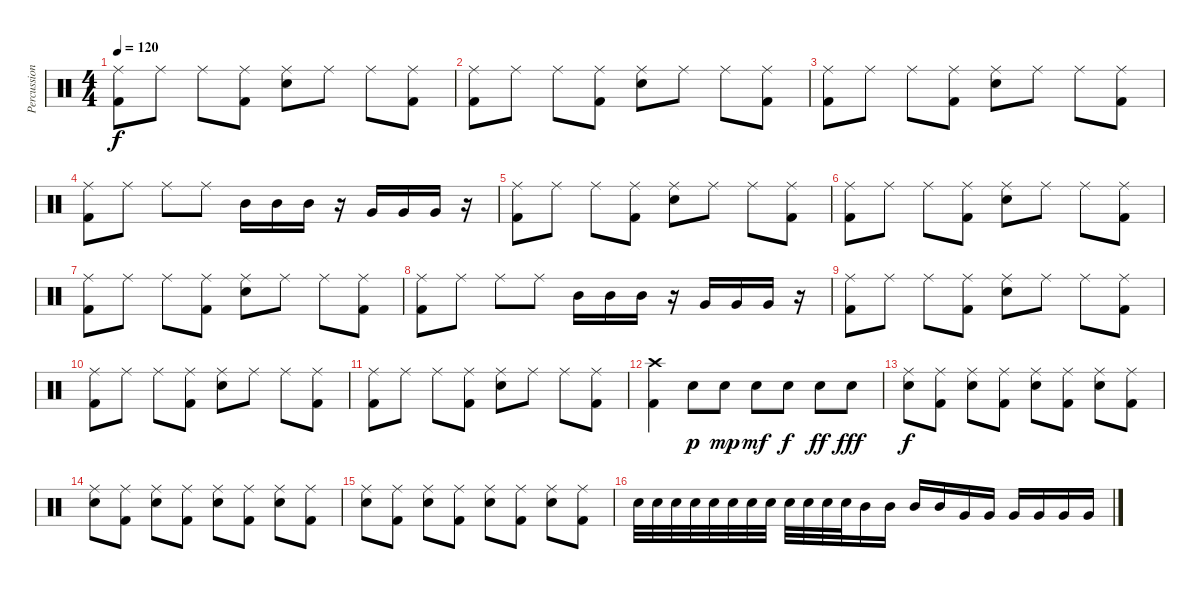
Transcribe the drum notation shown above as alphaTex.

\track ("Percussions" "Percussion") {instrument percussion}
\staff {score}
\articulation defaults
\ts (4 4)
\tempo 120
\clef neutral
\ks c
("Ride (middle)" "Kick (hit) 2").8{dy f} "Ride (middle)".8 "Ride (middle)".8 ("Ride (middle)" "Kick (hit) 2").8 ("Ride (middle)" "Snare (hit) 2").8 "Ride (middle)".8 "Ride (middle)".8 ("Ride (middle)" "Kick (hit) 2").8 |
("Ride (middle)" "Kick (hit) 2").8 "Ride (middle)".8 "Ride (middle)".8 ("Ride (middle)" "Kick (hit) 2").8 ("Ride (middle)" "Snare (hit) 2").8 "Ride (middle)".8 "Ride (middle)".8 ("Ride (middle)" "Kick (hit) 2").8 |
("Ride (middle)" "Kick (hit) 2").8 "Ride (middle)".8 "Ride (middle)".8 ("Ride (middle)" "Kick (hit) 2").8 ("Ride (middle)" "Snare (hit) 2").8 "Ride (middle)".8 "Ride (middle)".8 ("Ride (middle)" "Kick (hit) 2").8 |
("Ride (middle)" "Kick (hit) 2").8 "Ride (middle)".8 "Ride (middle)".8 "Ride (middle)".8 "Mid Tom (hit)".16 "Mid Tom (hit)".16 "Mid Tom (hit)".16 r.16 "Very Low Tom (hit)".16 "Very Low Tom (hit)".16 "Very Low Tom (hit)".16 r.16 |
("Ride (middle)" "Kick (hit) 2").8 "Ride (middle)".8 "Ride (middle)".8 ("Ride (middle)" "Kick (hit) 2").8 ("Ride (middle)" "Snare (hit) 2").8 "Ride (middle)".8 "Ride (middle)".8 ("Ride (middle)" "Kick (hit) 2").8 |
("Ride (middle)" "Kick (hit) 2").8 "Ride (middle)".8 "Ride (middle)".8 ("Ride (middle)" "Kick (hit) 2").8 ("Ride (middle)" "Snare (hit) 2").8 "Ride (middle)".8 "Ride (middle)".8 ("Ride (middle)" "Kick (hit) 2").8 |
("Ride (middle)" "Kick (hit) 2").8 "Ride (middle)".8 "Ride (middle)".8 ("Ride (middle)" "Kick (hit) 2").8 ("Ride (middle)" "Snare (hit) 2").8 "Ride (middle)".8 "Ride (middle)".8 ("Ride (middle)" "Kick (hit) 2").8 |
("Ride (middle)" "Kick (hit) 2").8 "Ride (middle)".8 "Ride (middle)".8 "Ride (middle)".8 "Mid Tom (hit)".16 "Mid Tom (hit)".16 "Mid Tom (hit)".16 r.16 "Very Low Tom (hit)".16 "Very Low Tom (hit)".16 "Very Low Tom (hit)".16 r.16 |
("Ride (middle)" "Kick (hit) 2").8 "Ride (middle)".8 "Ride (middle)".8 ("Ride (middle)" "Kick (hit) 2").8 ("Ride (middle)" "Snare (hit) 2").8 "Ride (middle)".8 "Ride (middle)".8 ("Ride (middle)" "Kick (hit) 2").8 |
("Ride (middle)" "Kick (hit) 2").8 "Ride (middle)".8 "Ride (middle)".8 ("Ride (middle)" "Kick (hit) 2").8 ("Ride (middle)" "Snare (hit) 2").8 "Ride (middle)".8 "Ride (middle)".8 ("Ride (middle)" "Kick (hit) 2").8 |
("Ride (middle)" "Kick (hit) 2").8 "Ride (middle)".8 "Ride (middle)".8 ("Ride (middle)" "Kick (hit) 2").8 ("Ride (middle)" "Snare (hit) 2").8 "Ride (middle)".8 "Ride (middle)".8 ("Ride (middle)" "Kick (hit) 2").8 |
("Crash high (hit)" "Kick (hit) 2").4 "Snare (hit) 2".8{dy p} "Snare (hit) 2".8{dy mp} "Snare (hit) 2".8{dy mf} "Snare (hit) 2".8{dy f} "Snare (hit) 2".8{dy ff} "Snare (hit) 2".8{dy fff} |
("Ride (middle)" "Snare (hit) 2").8{dy f} ("Ride (middle)" "Kick (hit) 2").8 ("Ride (middle)" "Snare (hit) 2").8 ("Ride (middle)" "Kick (hit) 2").8 ("Ride (middle)" "Snare (hit) 2").8 ("Ride (middle)" "Kick (hit) 2").8 ("Ride (middle)" "Snare (hit) 2").8 ("Ride (middle)" "Kick (hit) 2").8 |
("Ride (middle)" "Snare (hit) 2").8 ("Ride (middle)" "Kick (hit) 2").8 ("Ride (middle)" "Snare (hit) 2").8 ("Ride (middle)" "Kick (hit) 2").8 ("Ride (middle)" "Snare (hit) 2").8 ("Ride (middle)" "Kick (hit) 2").8 ("Ride (middle)" "Snare (hit) 2").8 ("Ride (middle)" "Kick (hit) 2").8 |
("Ride (middle)" "Snare (hit) 2").8 ("Ride (middle)" "Kick (hit) 2").8 ("Ride (middle)" "Snare (hit) 2").8 ("Ride (middle)" "Kick (hit) 2").8 ("Ride (middle)" "Snare (hit) 2").8 ("Ride (middle)" "Kick (hit) 2").8 ("Ride (middle)" "Snare (hit) 2").8 ("Ride (middle)" "Kick (hit) 2").8 |
"Snare (hit) 2".32 "Snare (hit) 2".32 "Snare (hit) 2".32 "Snare (hit) 2".32 "Snare (hit) 2".32 "Snare (hit) 2".32 "Snare (hit) 2".32 "Snare (hit) 2".32 "Snare (hit) 2".32 "Snare (hit) 2".32 "Snare (hit) 2".32 "Snare (hit) 2".32 "Mid Tom (hit)".16 "Mid Tom (hit)".16 "Mid Tom (hit)".16 "Mid Tom (hit)".16 "Very Low Tom (hit)".16 "Very Low Tom (hit)".16 "Very Low Tom (hit)".16 "Very Low Tom (hit)".16 "Very Low Tom (hit)".16 "Very Low Tom (hit)".16
